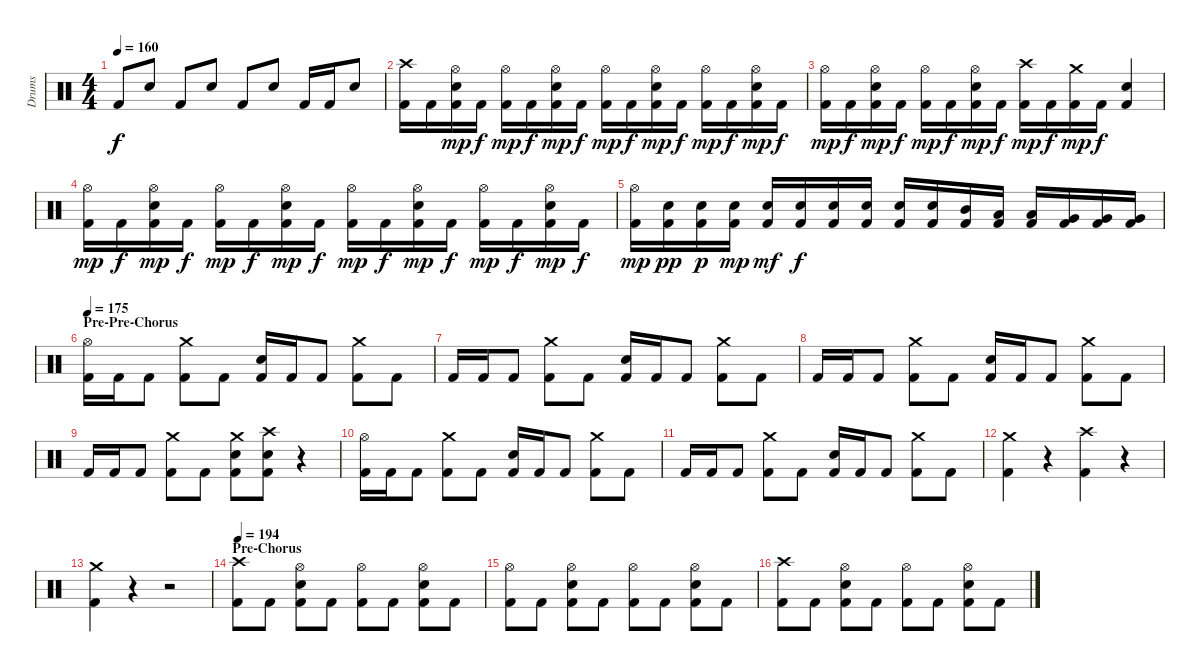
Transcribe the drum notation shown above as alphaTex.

\track ("Drums" "Drums") {instrument percussion}
\staff {score}
\articulation defaults
\ts (4 4)
\tempo 160
\clef neutral
\ks c "Kick (hit) 2".8{dy f} "Electric Snare (hit)".8 "Kick (hit) 2".8 "Electric Snare (hit)".8 "Kick (hit) 2".8 "Electric Snare (hit)".8 "Kick (hit) 2".16 "Kick (hit) 2".16 "Electric Snare (hit)".8
|
("Kick (hit) 2" "Crash high (hit)").16 "Kick (hit) 2".16 ("Kick (hit) 2" "Electric Snare (hit)" "Hi-Hat (open)").16{dy mp} "Kick (hit) 2".16{dy f} ("Kick (hit) 2" "Hi-Hat (open)").16{dy mp} "Kick (hit) 2".16{dy f} ("Kick (hit) 2" "Electric Snare (hit)" "Hi-Hat (open)").16{dy mp} "Kick (hit) 2".16{dy f} ("Kick (hit) 2" "Hi-Hat (open)").16{dy mp} "Kick (hit) 2".16{dy f} ("Kick (hit) 2" "Electric Snare (hit)" "Hi-Hat (open)").16{dy mp} "Kick (hit) 2".16{dy f} ("Kick (hit) 2" "Hi-Hat (open)").16{dy mp} "Kick (hit) 2".16{dy f} ("Kick (hit) 2" "Electric Snare (hit)" "Hi-Hat (open)").16{dy mp} "Kick (hit) 2".16{dy f} |
("Kick (hit) 2" "Hi-Hat (open)").16{dy mp} "Kick (hit) 2".16{dy f} ("Kick (hit) 2" "Electric Snare (hit)" "Hi-Hat (open)").16{dy mp} "Kick (hit) 2".16{dy f} ("Kick (hit) 2" "Hi-Hat (open)").16{dy mp} "Kick (hit) 2".16{dy f} ("Kick (hit) 2" "Electric Snare (hit)" "Hi-Hat (open)").16{dy mp} "Kick (hit) 2".16{dy f} ("Kick (hit) 2" "Crash high (hit)").16{dy mp} "Kick (hit) 2".16{dy f} ("Kick (hit) 2" "Crash medium (hit)").16{dy mp} "Kick (hit) 2".16{dy f} ("Kick (hit) 2" "Electric Snare (hit)").4 |
("Kick (hit) 2" "Hi-Hat (open)").16{dy mp} "Kick (hit) 2".16{dy f} ("Kick (hit) 2" "Electric Snare (hit)" "Hi-Hat (open)").16{dy mp} "Kick (hit) 2".16{dy f} ("Kick (hit) 2" "Hi-Hat (open)").16{dy mp} "Kick (hit) 2".16{dy f} ("Kick (hit) 2" "Electric Snare (hit)" "Hi-Hat (open)").16{dy mp} "Kick (hit) 2".16{dy f} ("Kick (hit) 2" "Hi-Hat (open)").16{dy mp} "Kick (hit) 2".16{dy f} ("Kick (hit) 2" "Electric Snare (hit)" "Hi-Hat (open)").16{dy mp} "Kick (hit) 2".16{dy f} ("Kick (hit) 2" "Hi-Hat (open)").16{dy mp} "Kick (hit) 2".16{dy f} ("Kick (hit) 2" "Electric Snare (hit)" "Hi-Hat (open)").16{dy mp} "Kick (hit) 2".16{dy f} |
("Kick (hit) 2" "Hi-Hat (open)").16{dy mp} ("Kick (hit) 2" "Electric Snare (hit)").16{dy pp} ("Kick (hit) 2" "Electric Snare (hit)").16{dy p} ("Kick (hit) 2" "Electric Snare (hit)").16{dy mp} ("Kick (hit) 2" "Electric Snare (hit)").16{dy mf} ("Kick (hit) 2" "Electric Snare (hit)").16{dy f} ("Kick (hit) 2" "Electric Snare (hit)").16 ("Kick (hit) 2" "Electric Snare (hit)").16 ("Kick (hit) 2" "Electric Snare (hit)").16 ("Kick (hit) 2" "Electric Snare (hit)").16 ("Kick (hit) 2" "Mid Tom (hit)").16 ("Kick (hit) 2" "Low Tom (hit)").16 ("Kick (hit) 2" "Low Tom (hit)").16 ("Kick (hit) 2" "Very Low Tom (hit)").16 ("Kick (hit) 2" "Very Low Tom (hit)").16 ("Kick (hit) 2" "Very Low Tom (hit)").16 |
\section ("" "Pre-Pre-Chorus")
\tempo 175
("Kick (hit) 2" "Hi-Hat (open)").16 "Kick (hit) 2".16 "Kick (hit) 2".8 ("Kick (hit) 2" "Crash medium (hit)").8 "Kick (hit) 2".8 ("Kick (hit) 2" "Electric Snare (hit)").16 "Kick (hit) 2".16 "Kick (hit) 2".8 ("Kick (hit) 2" "Crash medium (hit)").8 "Kick (hit) 2".8 |
"Kick (hit) 2".16 "Kick (hit) 2".16 "Kick (hit) 2".8 ("Kick (hit) 2" "Crash medium (hit)").8 "Kick (hit) 2".8 ("Kick (hit) 2" "Electric Snare (hit)").16 "Kick (hit) 2".16 "Kick (hit) 2".8 ("Kick (hit) 2" "Crash medium (hit)").8 "Kick (hit) 2".8 |
"Kick (hit) 2".16 "Kick (hit) 2".16 "Kick (hit) 2".8 ("Kick (hit) 2" "Crash medium (hit)").8 "Kick (hit) 2".8 ("Kick (hit) 2" "Electric Snare (hit)").16 "Kick (hit) 2".16 "Kick (hit) 2".8 ("Kick (hit) 2" "Crash medium (hit)").8 "Kick (hit) 2".8 |
"Kick (hit) 2".16 "Kick (hit) 2".16 "Kick (hit) 2".8 ("Kick (hit) 2" "Crash medium (hit)").8 "Kick (hit) 2".8 ("Kick (hit) 2" "Electric Snare (hit)" "Crash medium (hit)").8 ("Kick (hit) 2" "Electric Snare (hit)" "Crash high (hit)").8 r.4 |
("Kick (hit) 2" "Hi-Hat (open)").16 "Kick (hit) 2".16 "Kick (hit) 2".8 ("Kick (hit) 2" "Crash medium (hit)").8 "Kick (hit) 2".8 ("Kick (hit) 2" "Electric Snare (hit)").16 "Kick (hit) 2".16 "Kick (hit) 2".8 ("Kick (hit) 2" "Crash medium (hit)").8 "Kick (hit) 2".8 |
"Kick (hit) 2".16 "Kick (hit) 2".16 "Kick (hit) 2".8 ("Kick (hit) 2" "Crash medium (hit)").8 "Kick (hit) 2".8 ("Kick (hit) 2" "Electric Snare (hit)").16 "Kick (hit) 2".16 "Kick (hit) 2".8 ("Kick (hit) 2" "Crash medium (hit)").8 "Kick (hit) 2".8 |
("Kick (hit) 2" "Crash medium (hit)").4 r.4 ("Kick (hit) 2" "Crash high (hit)").4 r.4 |
("Kick (hit) 2" "Crash medium (hit)").4 r.4 r.2 |
\section ("" "Pre-Chorus")
\tempo 194
("Kick (hit) 2" "Crash high (hit)").8 "Kick (hit) 2".8 ("Kick (hit) 2" "Electric Snare (hit)" "Hi-Hat (open)").8 "Kick (hit) 2".8 ("Kick (hit) 2" "Hi-Hat (open)").8 "Kick (hit) 2".8 ("Kick (hit) 2" "Electric Snare (hit)" "Hi-Hat (open)").8 "Kick (hit) 2".8 |
("Kick (hit) 2" "Hi-Hat (open)").8 "Kick (hit) 2".8 ("Kick (hit) 2" "Electric Snare (hit)" "Hi-Hat (open)").8 "Kick (hit) 2".8 ("Kick (hit) 2" "Hi-Hat (open)").8 "Kick (hit) 2".8 ("Kick (hit) 2" "Electric Snare (hit)" "Hi-Hat (open)").8 "Kick (hit) 2".8 |
("Kick (hit) 2" "Crash high (hit)").8 "Kick (hit) 2".8 ("Kick (hit) 2" "Electric Snare (hit)" "Hi-Hat (open)").8 "Kick (hit) 2".8 ("Kick (hit) 2" "Hi-Hat (open)").8 "Kick (hit) 2".8 ("Kick (hit) 2" "Electric Snare (hit)" "Hi-Hat (open)").8 "Kick (hit) 2".8
